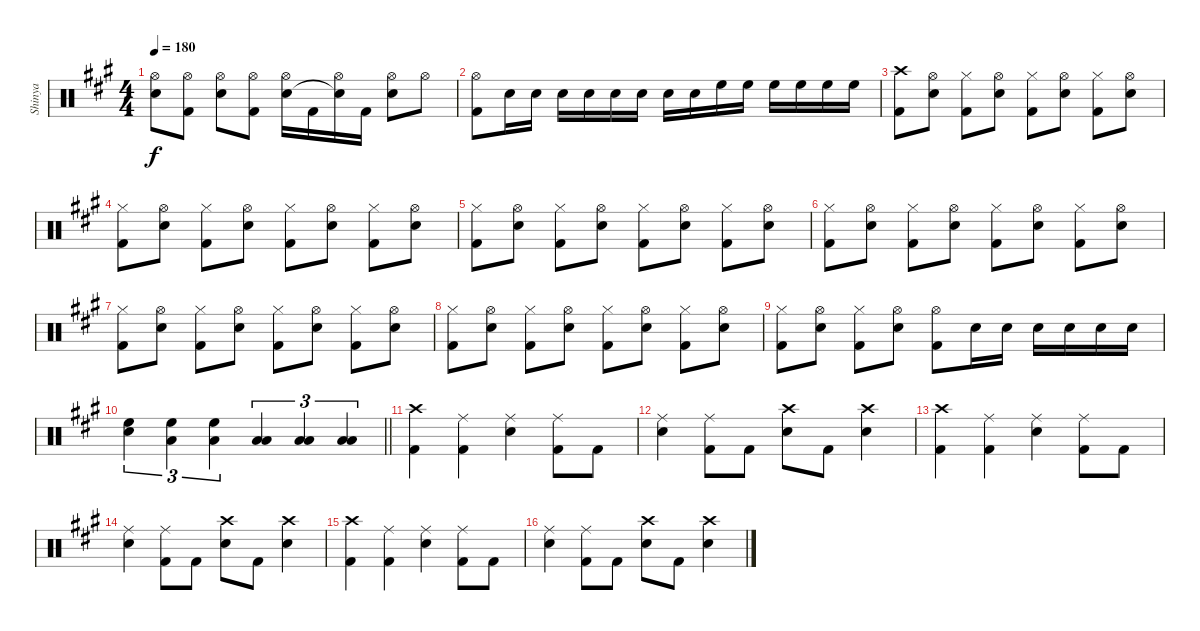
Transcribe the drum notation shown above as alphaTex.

\track ("Shinya" "Shinya") {instrument percussion}
\staff {score}
\articulation defaults
\ts (4 4)
\tempo 180
\clef neutral
\ks a
("Hi-Hat (open)" "Electric Snare (hit)").8{dy f} ("Hi-Hat (open)" "Kick (hit) 2").8 ("Hi-Hat (open)" "Electric Snare (hit)").8 ("Hi-Hat (open)" "Kick (hit) 2").8 ("Hi-Hat (open)" "Electric Snare (hit)").16 "Kick (hit) 2".16 ("Hi-Hat (open)" "Snare (hit)"{t}).16 "Kick (hit) 2".16 ("Hi-Hat (open)" "Electric Snare (hit)").8 "Hi-Hat (open)".8 |
("Hi-Hat (open)" "Kick (hit) 2").8 "Electric Snare (hit)".16 "Electric Snare (hit)".16 "Electric Snare (hit)".16 "Electric Snare (hit)".16 "Electric Snare (hit)".16 "Electric Snare (hit)".16 "Electric Snare (hit)".16 "Electric Snare (hit)".16 "High Floor Tom (hit)".16 "High Floor Tom (hit)".16 "High Floor Tom (hit)".16 "High Floor Tom (hit)".16 "High Floor Tom (hit)".16 "High Floor Tom (hit)".16 |
("Crash high (hit)" "Kick (hit) 2").8 ("Hi-Hat (open)" "Electric Snare (hit)").8 ("Hi-Hat (closed)" "Kick (hit) 2").8 ("Hi-Hat (open)" "Electric Snare (hit)").8 ("Hi-Hat (closed)" "Kick (hit) 2").8 ("Hi-Hat (open)" "Electric Snare (hit)").8 ("Hi-Hat (closed)" "Kick (hit) 2").8 ("Hi-Hat (open)" "Electric Snare (hit)").8 |
("Hi-Hat (closed)" "Kick (hit) 2").8 ("Hi-Hat (open)" "Electric Snare (hit)").8 ("Hi-Hat (closed)" "Kick (hit) 2").8 ("Hi-Hat (open)" "Electric Snare (hit)").8 ("Hi-Hat (closed)" "Kick (hit) 2").8 ("Hi-Hat (open)" "Electric Snare (hit)").8 ("Hi-Hat (closed)" "Kick (hit) 2").8 ("Hi-Hat (open)" "Electric Snare (hit)").8 |
("Hi-Hat (closed)" "Kick (hit) 2").8 ("Hi-Hat (open)" "Electric Snare (hit)").8 ("Hi-Hat (closed)" "Kick (hit) 2").8 ("Hi-Hat (open)" "Electric Snare (hit)").8 ("Hi-Hat (closed)" "Kick (hit) 2").8 ("Hi-Hat (open)" "Electric Snare (hit)").8 ("Hi-Hat (closed)" "Kick (hit) 2").8 ("Hi-Hat (open)" "Electric Snare (hit)").8 |
("Hi-Hat (closed)" "Kick (hit) 2").8 ("Hi-Hat (open)" "Electric Snare (hit)").8 ("Hi-Hat (closed)" "Kick (hit) 2").8 ("Hi-Hat (open)" "Electric Snare (hit)").8 ("Hi-Hat (closed)" "Kick (hit) 2").8 ("Hi-Hat (open)" "Electric Snare (hit)").8 ("Hi-Hat (closed)" "Kick (hit) 2").8 ("Hi-Hat (open)" "Electric Snare (hit)").8 |
("Hi-Hat (closed)" "Kick (hit) 2").8 ("Hi-Hat (open)" "Electric Snare (hit)").8 ("Hi-Hat (closed)" "Kick (hit) 2").8 ("Hi-Hat (open)" "Electric Snare (hit)").8 ("Hi-Hat (closed)" "Kick (hit) 2").8 ("Hi-Hat (open)" "Electric Snare (hit)").8 ("Hi-Hat (closed)" "Kick (hit) 2").8 ("Hi-Hat (open)" "Electric Snare (hit)").8 |
("Hi-Hat (closed)" "Kick (hit) 2").8 ("Hi-Hat (open)" "Electric Snare (hit)").8 ("Hi-Hat (closed)" "Kick (hit) 2").8 ("Hi-Hat (open)" "Electric Snare (hit)").8 ("Hi-Hat (closed)" "Kick (hit) 2").8 ("Hi-Hat (open)" "Electric Snare (hit)").8 ("Hi-Hat (closed)" "Kick (hit) 2").8 ("Hi-Hat (open)" "Electric Snare (hit)").8 |
("Hi-Hat (closed)" "Kick (hit) 2").8 ("Hi-Hat (open)" "Electric Snare (hit)").8 ("Hi-Hat (closed)" "Kick (hit) 2").8 ("Hi-Hat (open)" "Electric Snare (hit)").8 ("Hi-Hat (open)" "Kick (hit) 2").8 "Electric Snare (hit)".16 "Electric Snare (hit)".16 "Electric Snare (hit)".16 "Electric Snare (hit)".16 "Electric Snare (hit)".16 "Electric Snare (hit)".16 |
\barLineRight lightlight
("High Floor Tom (hit)" "Electric Snare (hit)").4{tu (3 2)} ("High Floor Tom (hit)" "Low Tom (hit)").4{tu (3 2)} ("High Floor Tom (hit)" "Low Tom (hit)").4{tu (3 2)} ("Low Tom (hit)" "Low Floor Tom (hit)").4{tu (3 2)} ("Low Tom (hit)" "Low Floor Tom (hit)").4{tu (3 2)} ("Low Tom (hit)" "Low Floor Tom (hit)").4{tu (3 2)} |
("Crash high (hit)" "Kick (hit) 2").4 ("Ride (middle)" "Kick (hit) 2").4 ("Ride (middle)" "Electric Snare (hit)").4 ("Ride (middle)" "Kick (hit) 2").8 "Kick (hit) 2".8 |
("Ride (middle)" "Electric Snare (hit)").4 ("Ride (middle)" "Kick (hit) 2").8 "Kick (hit) 2".8 ("Crash high (hit)" "Electric Snare (hit)").8 "Kick (hit) 2".8 ("Crash high (hit)" "Electric Snare (hit)").4 |
("Crash high (hit)" "Kick (hit) 2").4 ("Ride (middle)" "Kick (hit) 2").4 ("Ride (middle)" "Electric Snare (hit)").4 ("Ride (middle)" "Kick (hit) 2").8 "Kick (hit) 2".8 |
("Ride (middle)" "Electric Snare (hit)").4 ("Ride (middle)" "Kick (hit) 2").8 "Kick (hit) 2".8 ("Crash high (hit)" "Electric Snare (hit)").8 "Kick (hit) 2".8 ("Crash high (hit)" "Electric Snare (hit)").4 |
("Crash high (hit)" "Kick (hit) 2").4 ("Ride (middle)" "Kick (hit) 2").4 ("Ride (middle)" "Electric Snare (hit)").4 ("Ride (middle)" "Kick (hit) 2").8 "Kick (hit) 2".8 |
("Ride (middle)" "Electric Snare (hit)").4 ("Ride (middle)" "Kick (hit) 2").8 "Kick (hit) 2".8 ("Crash high (hit)" "Electric Snare (hit)").8 "Kick (hit) 2".8 ("Crash high (hit)" "Electric Snare (hit)").4
